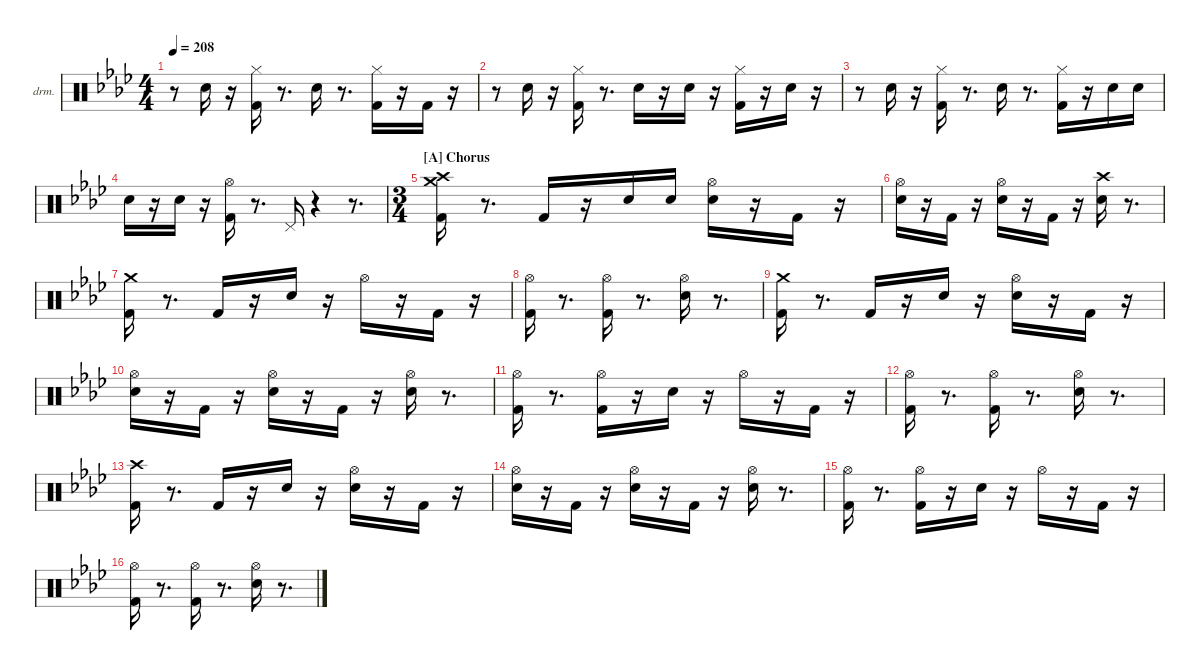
\hideDynamics
\bracketExtendMode nobrackets
\firstSystemTrackNameOrientation horizontal
\otherSystemsTrackNameOrientation horizontal
\track ("EZdrummer 3" "drm.") {instrument percussion}
\staff {score}
\articulation defaults
\ts (4 4)
\tempo 208
\clef neutral
\ks fminor
r.8{dy ff beam Down} "Snare (hit) 2"{acc forcenatural}.16{beam Down} r.16{beam Down} ("Kick (hit) 2"{acc forcenatural} "Hi-Hat (closed)"{acc b}).16{beam Down} r.8{d beam Down} "Snare (hit) 2"{acc forcenatural}.16{dy f beam Down} r.8{d beam Down} ("Kick (hit) 2"{acc forcenatural} "Hi-Hat (closed)"{acc b}).16{dy mf beam Down} r.16{beam Down} "Kick (hit) 2"{acc forcenatural}.16{dy ff beam Up} r.16{beam Up} |
r.8{beam Down} "Snare (hit) 2"{acc forcenatural}.16{beam Down} r.16{beam Down} ("Kick (hit) 2"{acc forcenatural} "Hi-Hat (closed)"{acc b}).16{beam Down} r.8{d beam Down} "Snare (hit) 2"{acc forcenatural}.16{dy f beam Down} r.16{beam Down} "Snare (hit) 2"{acc forcenatural}.16{dy mp beam Down} r.16{beam Down} ("Kick (hit) 2"{acc forcenatural} "Hi-Hat (closed)"{acc b}).16{dy ff beam Down} r.16{beam Down} "Snare (hit) 2"{acc forcenatural}.16{beam Down} r.16{beam Down} |
r.8{beam Down} "Snare (hit) 2"{acc forcenatural}.16{beam Down} r.16{beam Down} ("Kick (hit) 2"{acc forcenatural} "Hi-Hat (closed)"{acc b}).16{beam Down} r.8{d beam Down} "Snare (hit) 2"{acc forcenatural}.16{dy f beam Down} r.8{d beam Down} ("Kick (hit) 2"{acc forcenatural} "Hi-Hat (closed)"{acc b}).16{dy mf beam Down} r.16{beam Down} "Snare (hit) 2"{acc forcenatural}.16{dy p beam Down} "Snare (hit) 2"{acc forcenatural}.16{dy pp beam Down} |
"Snare (hit) 2"{acc forcenatural}.16{dy f beam Down} r.16{beam Down} "Snare (hit) 2"{acc forcenatural}.16{dy ff beam Down} r.16{beam Down} ("Kick (hit) 2"{acc forcenatural} "Hi-Hat (open)"{acc b}).16{beam Down} r.8{d beam Down} "Pedal Hi-Hat (hit)"{acc b}.16{beam Up} r.4{beam Up} r.8{d beam Up} |
\ts (3 4)
\section ("A" "Chorus")
("Kick (hit) 2"{acc forcenatural} "Crash high (hit)"{acc b} "Crash medium (hit)"{acc forcenatural}).16{dy fff beam Down} r.8{d beam Down} "Kick (hit) 2"{acc forcenatural}.16{dy f beam Up} r.16{beam Up} "Snare (hit) 2"{acc forcenatural}.16{dy mp beam Down} "Snare (hit) 2"{acc forcenatural}.16{beam Down} ("Snare (hit) 2"{acc forcenatural} "Hi-Hat (open)"{acc b}).16{dy ff beam Down} r.16{beam Down} "Kick (hit) 2"{acc forcenatural}.16{beam Up} r.16{beam Up} |
("Snare (hit) 2"{acc forcenatural} "Hi-Hat (open)"{acc b}).16{beam Down} r.16{beam Down} "Kick (hit) 2"{acc forcenatural}.16{beam Up} r.16{beam Up} ("Snare (hit) 2"{acc forcenatural} "Hi-Hat (open)"{acc b}).16{beam Down} r.16{beam Down} "Kick (hit) 2"{acc forcenatural}.16{beam Up} r.16{beam Up} ("Snare (hit) 2"{acc forcenatural} "Crash high (hit)"{acc b}).16{beam Down} r.8{d beam Down} |
("Kick (hit) 2"{acc forcenatural} "Crash medium (hit)"{acc forcenatural}).16{beam Down} r.8{d beam Down} "Kick (hit) 2"{acc forcenatural}.16{dy f beam Up} r.16{beam Up} "Snare (hit) 2"{acc forcenatural}.16{dy ff beam Down} r.16{beam Down} "Hi-Hat (open)"{acc b}.16{dy f beam Down} r.16{beam Down} "Kick (hit) 2"{acc forcenatural}.16{beam Up} r.16{beam Up} |
("Kick (hit) 2"{acc forcenatural} "Hi-Hat (open)"{acc b}).16{dy ff beam Down} r.8{d beam Down} ("Kick (hit) 2"{acc forcenatural} "Hi-Hat (open)"{acc b}).16{beam Down} r.8{d beam Down} ("Snare (hit) 2"{acc forcenatural} "Hi-Hat (open)"{acc b}).16{beam Down} r.8{d beam Down} |
("Kick (hit) 2"{acc forcenatural} "Crash medium (hit)"{acc forcenatural}).16{beam Down} r.8{d beam Down} "Kick (hit) 2"{acc forcenatural}.16{dy f beam Up} r.16{beam Up} "Snare (hit) 2"{acc forcenatural}.16{dy mp beam Down} r.16{beam Down} ("Snare (hit) 2"{acc forcenatural} "Hi-Hat (open)"{acc b}).16{dy ff beam Down} r.16{beam Down} "Kick (hit) 2"{acc forcenatural}.16{beam Up} r.16{beam Up} |
("Snare (hit) 2"{acc forcenatural} "Hi-Hat (open)"{acc b}).16{beam Down} r.16{beam Down} "Kick (hit) 2"{acc forcenatural}.16{beam Up} r.16{beam Up} ("Snare (hit) 2"{acc forcenatural} "Hi-Hat (open)"{acc b}).16{beam Down} r.16{beam Down} "Kick (hit) 2"{acc forcenatural}.16{beam Up} r.16{beam Up} ("Snare (hit) 2"{acc forcenatural} "Hi-Hat (open)"{acc b}).16{beam Down} r.8{d beam Down} |
("Kick (hit) 2"{acc forcenatural} "Hi-Hat (open)"{acc b}).16{beam Down} r.8{d beam Down} ("Kick (hit) 2"{acc forcenatural} "Hi-Hat (open)"{acc b}).16{dy f beam Down} r.16{beam Down} "Snare (hit) 2"{acc forcenatural}.16{dy ff beam Down} r.16{beam Down} "Hi-Hat (open)"{acc b}.16{dy f beam Down} r.16{beam Down} "Kick (hit) 2"{acc forcenatural}.16{beam Up} r.16{beam Up} |
("Kick (hit) 2"{acc forcenatural} "Hi-Hat (open)"{acc b}).16{dy ff beam Down} r.8{d beam Down} ("Kick (hit) 2"{acc forcenatural} "Hi-Hat (open)"{acc b}).16{beam Down} r.8{d beam Down} ("Snare (hit) 2"{acc forcenatural} "Hi-Hat (open)"{acc b}).16{beam Down} r.8{d beam Down} |
("Kick (hit) 2"{acc forcenatural} "Crash high (hit)"{acc b}).16{beam Down} r.8{d beam Down} "Kick (hit) 2"{acc forcenatural}.16{dy f beam Up} r.16{beam Up} "Snare (hit) 2"{acc forcenatural}.16{dy mp beam Down} r.16{beam Down} ("Snare (hit) 2"{acc forcenatural} "Hi-Hat (open)"{acc b}).16{dy ff beam Down} r.16{beam Down} "Kick (hit) 2"{acc forcenatural}.16{beam Up} r.16{beam Up} |
("Snare (hit) 2"{acc forcenatural} "Hi-Hat (open)"{acc b}).16{beam Down} r.16{beam Down} "Kick (hit) 2"{acc forcenatural}.16{beam Up} r.16{beam Up} ("Snare (hit) 2"{acc forcenatural} "Hi-Hat (open)"{acc b}).16{beam Down} r.16{beam Down} "Kick (hit) 2"{acc forcenatural}.16{beam Up} r.16{beam Up} ("Snare (hit) 2"{acc forcenatural} "Hi-Hat (open)"{acc b}).16{beam Down} r.8{d beam Down} |
("Kick (hit) 2"{acc forcenatural} "Hi-Hat (open)"{acc b}).16{beam Down} r.8{d beam Down} ("Kick (hit) 2"{acc forcenatural} "Hi-Hat (open)"{acc b}).16{dy f beam Down} r.16{beam Down} "Snare (hit) 2"{acc forcenatural}.16{dy ff beam Down} r.16{beam Down} "Hi-Hat (open)"{acc b}.16{dy f beam Down} r.16{beam Down} "Kick (hit) 2"{acc forcenatural}.16{beam Up} r.16{beam Up} |
("Kick (hit) 2"{acc forcenatural} "Hi-Hat (open)"{acc b}).16{dy ff beam Down} r.8{d beam Down} ("Kick (hit) 2"{acc forcenatural} "Hi-Hat (open)"{acc b}).16{beam Down} r.8{d beam Down} ("Snare (hit) 2"{acc forcenatural} "Hi-Hat (open)"{acc b}).16{beam Down} r.8{d beam Down}
